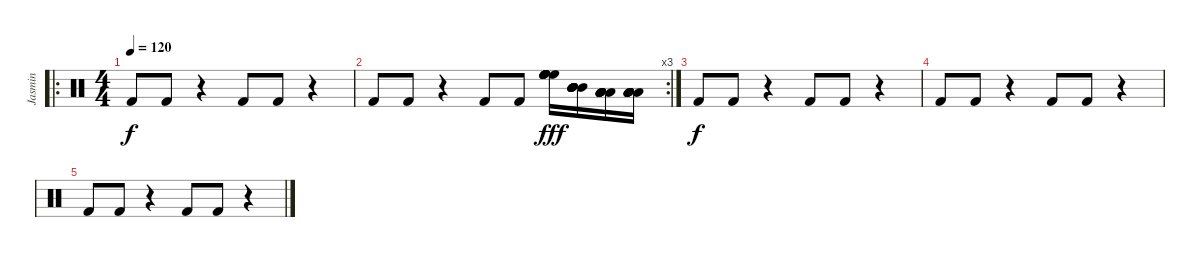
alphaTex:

\track ("Jasmin" "Jasmin") {instrument percussion}
\staff {score}
\articulation defaults
\ro
\ts (4 4)
\tempo 120
\clef neutral
\ks c "Kick (hit) 2".8{dy f} "Kick (hit) 2".8
r.4 "Kick (hit) 2".8 "Kick (hit) 2".8 r.4 |
\rc 3 "Kick (hit) 2".8 "Kick (hit) 2".8
r.4 "Kick (hit) 2".8 "Kick (hit) 2".8 ("High Floor Tom (hit)" "High Floor Tom (hit)" "High Floor Tom (hit)" "High Floor Tom (hit)" "High Floor Tom (hit)" "High Floor Tom (hit)").16{dy fff} ("Mid Tom (hit)" "Mid Tom (hit)" "Mid Tom (hit)" "Mid Tom (hit)" "Mid Tom (hit)" "Mid Tom (hit)").16 ("Low Tom (hit)" "Low Tom (hit)" "Low Tom (hit)" "Low Tom (hit)" "Low Tom (hit)" "Low Tom (hit)").16 ("Low Floor Tom (hit)" "Low Floor Tom (hit)" "Low Floor Tom (hit)" "Low Floor Tom (hit)" "Low Floor Tom (hit)" "Low Floor Tom (hit)").16 |
"Kick (hit) 2".8{dy f} "Kick (hit) 2".8 r.4 "Kick (hit) 2".8 "Kick (hit) 2".8 r.4 |
"Kick (hit) 2".8 "Kick (hit) 2".8 r.4 "Kick (hit) 2".8 "Kick (hit) 2".8 r.4 |
"Kick (hit) 2".8 "Kick (hit) 2".8 r.4 "Kick (hit) 2".8 "Kick (hit) 2".8 r.4
